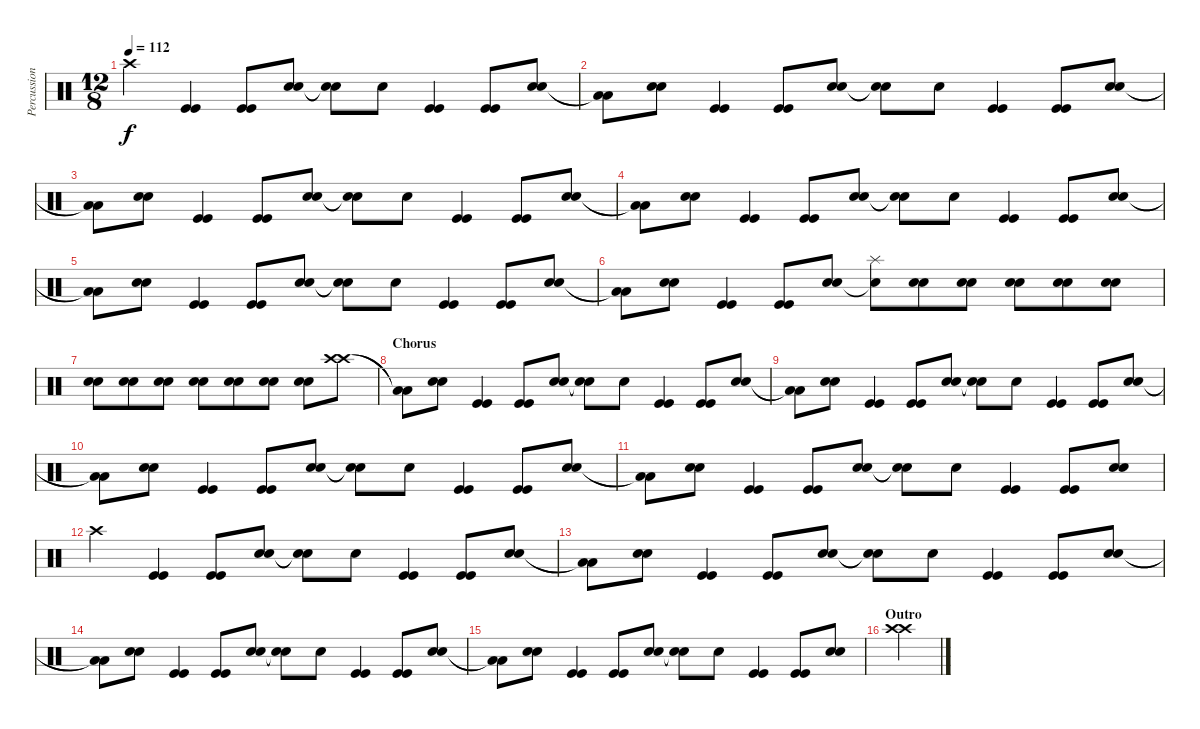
\track ("Percussions" "Percussion") {instrument percussion}
\staff {score}
\articulation defaults
\ts (12 8)
\tempo 112
\clef neutral
\ks c "Crash high (hit)".4{dy f}
("Kick (hit)" "Kick (hit)").4 ("Kick (hit)" "Kick (hit)").8 ("Snare (hit) 2" "Snare (hit) 2").8 ("Snare (hit)"{t} "Snare (hit)"{t}).8 "Snare (hit) 2".8 ("Kick (hit)" "Kick (hit)").4 ("Kick (hit)" "Kick (hit)").8 ("Snare (hit) 2" "Snare (hit) 2").8 |
("Low Floor Tom (hit)"{t} "Low Floor Tom (hit)"{t}).8 ("Snare (hit) 2" "Snare (hit) 2").8 ("Kick (hit)" "Kick (hit)").4 ("Kick (hit)" "Kick (hit)").8 ("Snare (hit) 2" "Snare (hit) 2").8 ("Snare (hit)"{t} "Snare (hit)"{t}).8 "Snare (hit) 2".8 ("Kick (hit)" "Kick (hit)").4 ("Kick (hit)" "Kick (hit)").8 ("Snare (hit) 2" "Snare (hit) 2").8 |
("Low Floor Tom (hit)"{t} "Low Floor Tom (hit)"{t}).8 ("Snare (hit) 2" "Snare (hit) 2").8 ("Kick (hit)" "Kick (hit)").4 ("Kick (hit)" "Kick (hit)").8 ("Snare (hit) 2" "Snare (hit) 2").8 ("Snare (hit)"{t} "Snare (hit)"{t}).8 "Snare (hit) 2".8 ("Kick (hit)" "Kick (hit)").4 ("Kick (hit)" "Kick (hit)").8 ("Snare (hit) 2" "Snare (hit) 2").8 |
("Low Floor Tom (hit)"{t} "Low Floor Tom (hit)"{t}).8 ("Snare (hit) 2" "Snare (hit) 2").8 ("Kick (hit)" "Kick (hit)").4 ("Kick (hit)" "Kick (hit)").8 ("Snare (hit) 2" "Snare (hit) 2").8 ("Snare (hit)"{t} "Snare (hit)"{t}).8 "Snare (hit) 2".8 ("Kick (hit)" "Kick (hit)").4 ("Kick (hit)" "Kick (hit)").8 ("Snare (hit) 2" "Snare (hit) 2").8 |
("Low Floor Tom (hit)"{t} "Low Floor Tom (hit)"{t}).8 ("Snare (hit) 2" "Snare (hit) 2").8 ("Kick (hit)" "Kick (hit)").4 ("Kick (hit)" "Kick (hit)").8 ("Snare (hit) 2" "Snare (hit) 2").8 ("Snare (hit)"{t} "Snare (hit)"{t}).8 "Snare (hit) 2".8 ("Kick (hit)" "Kick (hit)").4 ("Kick (hit)" "Kick (hit)").8 ("Snare (hit) 2" "Snare (hit) 2").8 |
("Low Floor Tom (hit)"{t} "Low Floor Tom (hit)"{t}).8 ("Snare (hit) 2" "Snare (hit) 2").8 ("Kick (hit)" "Kick (hit)").4 ("Kick (hit)" "Kick (hit)").8 ("Snare (hit) 2" "Snare (hit) 2").8 ("Splash (hit)" "Snare (hit)"{t}).8 ("Snare (hit) 2" "Snare (hit) 2").8 ("Snare (hit) 2" "Snare (hit) 2").8 ("Snare (hit) 2" "Snare (hit) 2").8 ("Snare (hit) 2" "Snare (hit) 2").8 ("Snare (hit) 2" "Snare (hit) 2").8 |
("Snare (hit) 2" "Snare (hit) 2").8 ("Snare (hit) 2" "Snare (hit) 2").8 ("Snare (hit) 2" "Snare (hit) 2").8 ("Snare (hit) 2" "Snare (hit) 2").8 ("Snare (hit) 2" "Snare (hit) 2").8 ("Snare (hit) 2" "Snare (hit) 2").8 ("Snare (hit) 2" "Snare (hit) 2").8 ("Crash high (hit)" "Crash high (hit)").8 |
\section ("" "Chorus")
("Low Floor Tom (hit)"{t} "Low Floor Tom (hit)"{t}).8 ("Snare (hit) 2" "Snare (hit) 2").8 ("Kick (hit)" "Kick (hit)").4 ("Kick (hit)" "Kick (hit)").8 ("Snare (hit) 2" "Snare (hit) 2").8 ("Snare (hit)"{t} "Snare (hit)"{t}).8 "Snare (hit) 2".8 ("Kick (hit)" "Kick (hit)").4 ("Kick (hit)" "Kick (hit)").8 ("Snare (hit) 2" "Snare (hit) 2").8 |
("Low Floor Tom (hit)"{t} "Low Floor Tom (hit)"{t}).8 ("Snare (hit) 2" "Snare (hit) 2").8 ("Kick (hit)" "Kick (hit)").4 ("Kick (hit)" "Kick (hit)").8 ("Snare (hit) 2" "Snare (hit) 2").8 ("Snare (hit)"{t} "Snare (hit)"{t}).8 "Snare (hit) 2".8 ("Kick (hit)" "Kick (hit)").4 ("Kick (hit)" "Kick (hit)").8 ("Snare (hit) 2" "Snare (hit) 2").8 |
("Low Floor Tom (hit)"{t} "Low Floor Tom (hit)"{t}).8 ("Snare (hit) 2" "Snare (hit) 2").8 ("Kick (hit)" "Kick (hit)").4 ("Kick (hit)" "Kick (hit)").8 ("Snare (hit) 2" "Snare (hit) 2").8 ("Snare (hit)"{t} "Snare (hit)"{t}).8 "Snare (hit) 2".8 ("Kick (hit)" "Kick (hit)").4 ("Kick (hit)" "Kick (hit)").8 ("Snare (hit) 2" "Snare (hit) 2").8 |
("Low Floor Tom (hit)"{t} "Low Floor Tom (hit)"{t}).8 ("Snare (hit) 2" "Snare (hit) 2").8 ("Kick (hit)" "Kick (hit)").4 ("Kick (hit)" "Kick (hit)").8 ("Snare (hit) 2" "Snare (hit) 2").8 ("Snare (hit)"{t} "Snare (hit)"{t}).8 "Snare (hit) 2".8 ("Kick (hit)" "Kick (hit)").4 ("Kick (hit)" "Kick (hit)").8 ("Snare (hit) 2" "Snare (hit) 2").8 |
"Crash high (hit)".4 ("Kick (hit)" "Kick (hit)").4 ("Kick (hit)" "Kick (hit)").8 ("Snare (hit) 2" "Snare (hit) 2").8 ("Snare (hit)"{t} "Snare (hit)"{t}).8 "Snare (hit) 2".8 ("Kick (hit)" "Kick (hit)").4 ("Kick (hit)" "Kick (hit)").8 ("Snare (hit) 2" "Snare (hit) 2").8 |
("Low Floor Tom (hit)"{t} "Low Floor Tom (hit)"{t}).8 ("Snare (hit) 2" "Snare (hit) 2").8 ("Kick (hit)" "Kick (hit)").4 ("Kick (hit)" "Kick (hit)").8 ("Snare (hit) 2" "Snare (hit) 2").8 ("Snare (hit)"{t} "Snare (hit)"{t}).8 "Snare (hit) 2".8 ("Kick (hit)" "Kick (hit)").4 ("Kick (hit)" "Kick (hit)").8 ("Snare (hit) 2" "Snare (hit) 2").8 |
("Low Floor Tom (hit)"{t} "Low Floor Tom (hit)"{t}).8 ("Snare (hit) 2" "Snare (hit) 2").8 ("Kick (hit)" "Kick (hit)").4 ("Kick (hit)" "Kick (hit)").8 ("Snare (hit) 2" "Snare (hit) 2").8 ("Snare (hit)"{t} "Snare (hit)"{t}).8 "Snare (hit) 2".8 ("Kick (hit)" "Kick (hit)").4 ("Kick (hit)" "Kick (hit)").8 ("Snare (hit) 2" "Snare (hit) 2").8 |
("Low Floor Tom (hit)"{t} "Low Floor Tom (hit)"{t}).8 ("Snare (hit) 2" "Snare (hit) 2").8 ("Kick (hit)" "Kick (hit)").4 ("Kick (hit)" "Kick (hit)").8 ("Snare (hit) 2" "Snare (hit) 2").8 ("Snare (hit)"{t} "Snare (hit)"{t}).8 "Snare (hit) 2".8 ("Kick (hit)" "Kick (hit)").4 ("Kick (hit)" "Kick (hit)").8 ("Snare (hit) 2" "Snare (hit) 2").8 |
\section ("" "Outro")
("Crash high (hit)" "Crash high (hit)").4
